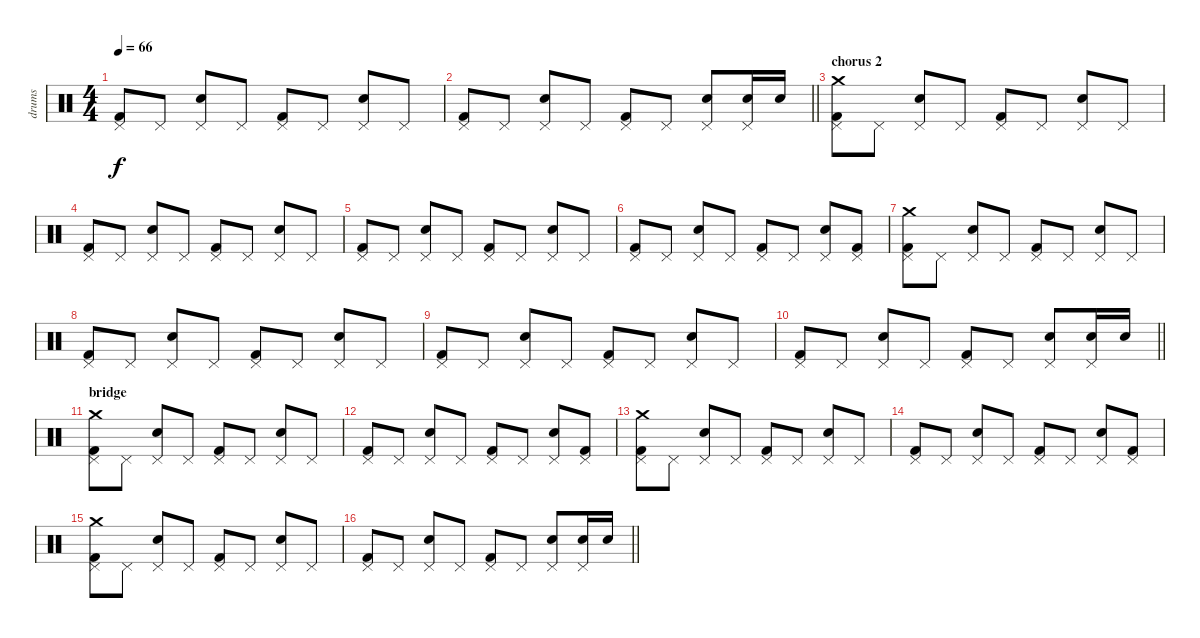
\track ("drums" "drums") {instrument percussion}
\staff {score}
\articulation defaults
\ts (4 4)
\tempo 66
\clef neutral
\ks c
("Kick (hit) 2" "Pedal Hi-Hat (hit)").8{dy f} "Pedal Hi-Hat (hit)".8 ("Snare (hit) 2" "Pedal Hi-Hat (hit)").8 "Pedal Hi-Hat (hit)".8 ("Kick (hit) 2" "Pedal Hi-Hat (hit)").8 "Pedal Hi-Hat (hit)".8 ("Snare (hit) 2" "Pedal Hi-Hat (hit)").8 "Pedal Hi-Hat (hit)".8 |
\barLineRight lightlight
("Kick (hit) 2" "Pedal Hi-Hat (hit)").8 "Pedal Hi-Hat (hit)".8 ("Snare (hit) 2" "Pedal Hi-Hat (hit)").8 "Pedal Hi-Hat (hit)".8 ("Kick (hit) 2" "Pedal Hi-Hat (hit)").8 "Pedal Hi-Hat (hit)".8 ("Snare (hit) 2" "Pedal Hi-Hat (hit)").8 ("Snare (hit) 2" "Pedal Hi-Hat (hit)").16 "Snare (hit) 2".16 |
\section ("" "chorus 2")
("Kick (hit) 2" "Pedal Hi-Hat (hit)" "Crash medium (hit)").8 "Pedal Hi-Hat (hit)".8 ("Snare (hit) 2" "Pedal Hi-Hat (hit)").8 "Pedal Hi-Hat (hit)".8 ("Kick (hit) 2" "Pedal Hi-Hat (hit)").8 "Pedal Hi-Hat (hit)".8 ("Snare (hit) 2" "Pedal Hi-Hat (hit)").8 "Pedal Hi-Hat (hit)".8 |
("Kick (hit) 2" "Pedal Hi-Hat (hit)").8 "Pedal Hi-Hat (hit)".8 ("Snare (hit) 2" "Pedal Hi-Hat (hit)").8 "Pedal Hi-Hat (hit)".8 ("Kick (hit) 2" "Pedal Hi-Hat (hit)").8 "Pedal Hi-Hat (hit)".8 ("Snare (hit) 2" "Pedal Hi-Hat (hit)").8 "Pedal Hi-Hat (hit)".8 |
("Kick (hit) 2" "Pedal Hi-Hat (hit)").8 "Pedal Hi-Hat (hit)".8 ("Snare (hit) 2" "Pedal Hi-Hat (hit)").8 "Pedal Hi-Hat (hit)".8 ("Kick (hit) 2" "Pedal Hi-Hat (hit)").8 "Pedal Hi-Hat (hit)".8 ("Snare (hit) 2" "Pedal Hi-Hat (hit)").8 "Pedal Hi-Hat (hit)".8 |
("Kick (hit) 2" "Pedal Hi-Hat (hit)").8 "Pedal Hi-Hat (hit)".8 ("Snare (hit) 2" "Pedal Hi-Hat (hit)").8 "Pedal Hi-Hat (hit)".8 ("Kick (hit) 2" "Pedal Hi-Hat (hit)").8 "Pedal Hi-Hat (hit)".8 ("Snare (hit) 2" "Pedal Hi-Hat (hit)").8 ("Kick (hit) 2" "Pedal Hi-Hat (hit)").8 |
("Kick (hit) 2" "Pedal Hi-Hat (hit)" "Crash medium (hit)").8 "Pedal Hi-Hat (hit)".8 ("Snare (hit) 2" "Pedal Hi-Hat (hit)").8 "Pedal Hi-Hat (hit)".8 ("Kick (hit) 2" "Pedal Hi-Hat (hit)").8 "Pedal Hi-Hat (hit)".8 ("Snare (hit) 2" "Pedal Hi-Hat (hit)").8 "Pedal Hi-Hat (hit)".8 |
("Kick (hit) 2" "Pedal Hi-Hat (hit)").8 "Pedal Hi-Hat (hit)".8 ("Snare (hit) 2" "Pedal Hi-Hat (hit)").8 "Pedal Hi-Hat (hit)".8 ("Kick (hit) 2" "Pedal Hi-Hat (hit)").8 "Pedal Hi-Hat (hit)".8 ("Snare (hit) 2" "Pedal Hi-Hat (hit)").8 "Pedal Hi-Hat (hit)".8 |
("Kick (hit) 2" "Pedal Hi-Hat (hit)").8 "Pedal Hi-Hat (hit)".8 ("Snare (hit) 2" "Pedal Hi-Hat (hit)").8 "Pedal Hi-Hat (hit)".8 ("Kick (hit) 2" "Pedal Hi-Hat (hit)").8 "Pedal Hi-Hat (hit)".8 ("Snare (hit) 2" "Pedal Hi-Hat (hit)").8 "Pedal Hi-Hat (hit)".8 |
\barLineRight lightlight
("Kick (hit) 2" "Pedal Hi-Hat (hit)").8 "Pedal Hi-Hat (hit)".8 ("Snare (hit) 2" "Pedal Hi-Hat (hit)").8 "Pedal Hi-Hat (hit)".8 ("Kick (hit) 2" "Pedal Hi-Hat (hit)").8 "Pedal Hi-Hat (hit)".8 ("Snare (hit) 2" "Pedal Hi-Hat (hit)").8 ("Snare (hit) 2" "Pedal Hi-Hat (hit)").16 "Snare (hit) 2".16 |
\section ("" "bridge")
("Kick (hit) 2" "Pedal Hi-Hat (hit)" "Crash medium (hit)").8 "Pedal Hi-Hat (hit)".8 ("Snare (hit) 2" "Pedal Hi-Hat (hit)").8 "Pedal Hi-Hat (hit)".8 ("Kick (hit) 2" "Pedal Hi-Hat (hit)").8 "Pedal Hi-Hat (hit)".8 ("Snare (hit) 2" "Pedal Hi-Hat (hit)").8 "Pedal Hi-Hat (hit)".8 |
("Kick (hit) 2" "Pedal Hi-Hat (hit)").8 "Pedal Hi-Hat (hit)".8 ("Snare (hit) 2" "Pedal Hi-Hat (hit)").8 "Pedal Hi-Hat (hit)".8 ("Kick (hit) 2" "Pedal Hi-Hat (hit)").8 "Pedal Hi-Hat (hit)".8 ("Snare (hit) 2" "Pedal Hi-Hat (hit)").8 ("Kick (hit) 2" "Pedal Hi-Hat (hit)").8 |
("Kick (hit) 2" "Pedal Hi-Hat (hit)" "Crash medium (hit)").8 "Pedal Hi-Hat (hit)".8 ("Snare (hit) 2" "Pedal Hi-Hat (hit)").8 "Pedal Hi-Hat (hit)".8 ("Kick (hit) 2" "Pedal Hi-Hat (hit)").8 "Pedal Hi-Hat (hit)".8 ("Snare (hit) 2" "Pedal Hi-Hat (hit)").8 "Pedal Hi-Hat (hit)".8 |
("Kick (hit) 2" "Pedal Hi-Hat (hit)").8 "Pedal Hi-Hat (hit)".8 ("Snare (hit) 2" "Pedal Hi-Hat (hit)").8 "Pedal Hi-Hat (hit)".8 ("Kick (hit) 2" "Pedal Hi-Hat (hit)").8 "Pedal Hi-Hat (hit)".8 ("Snare (hit) 2" "Pedal Hi-Hat (hit)").8 ("Kick (hit) 2" "Pedal Hi-Hat (hit)").8 |
("Kick (hit) 2" "Pedal Hi-Hat (hit)" "Crash medium (hit)").8 "Pedal Hi-Hat (hit)".8 ("Snare (hit) 2" "Pedal Hi-Hat (hit)").8 "Pedal Hi-Hat (hit)".8 ("Kick (hit) 2" "Pedal Hi-Hat (hit)").8 "Pedal Hi-Hat (hit)".8 ("Snare (hit) 2" "Pedal Hi-Hat (hit)").8 "Pedal Hi-Hat (hit)".8 |
\barLineRight lightlight
("Kick (hit) 2" "Pedal Hi-Hat (hit)").8 "Pedal Hi-Hat (hit)".8 ("Snare (hit) 2" "Pedal Hi-Hat (hit)").8 "Pedal Hi-Hat (hit)".8 ("Kick (hit) 2" "Pedal Hi-Hat (hit)").8 "Pedal Hi-Hat (hit)".8 ("Snare (hit) 2" "Pedal Hi-Hat (hit)").8 ("Snare (hit) 2" "Pedal Hi-Hat (hit)").16 "Snare (hit) 2".16
